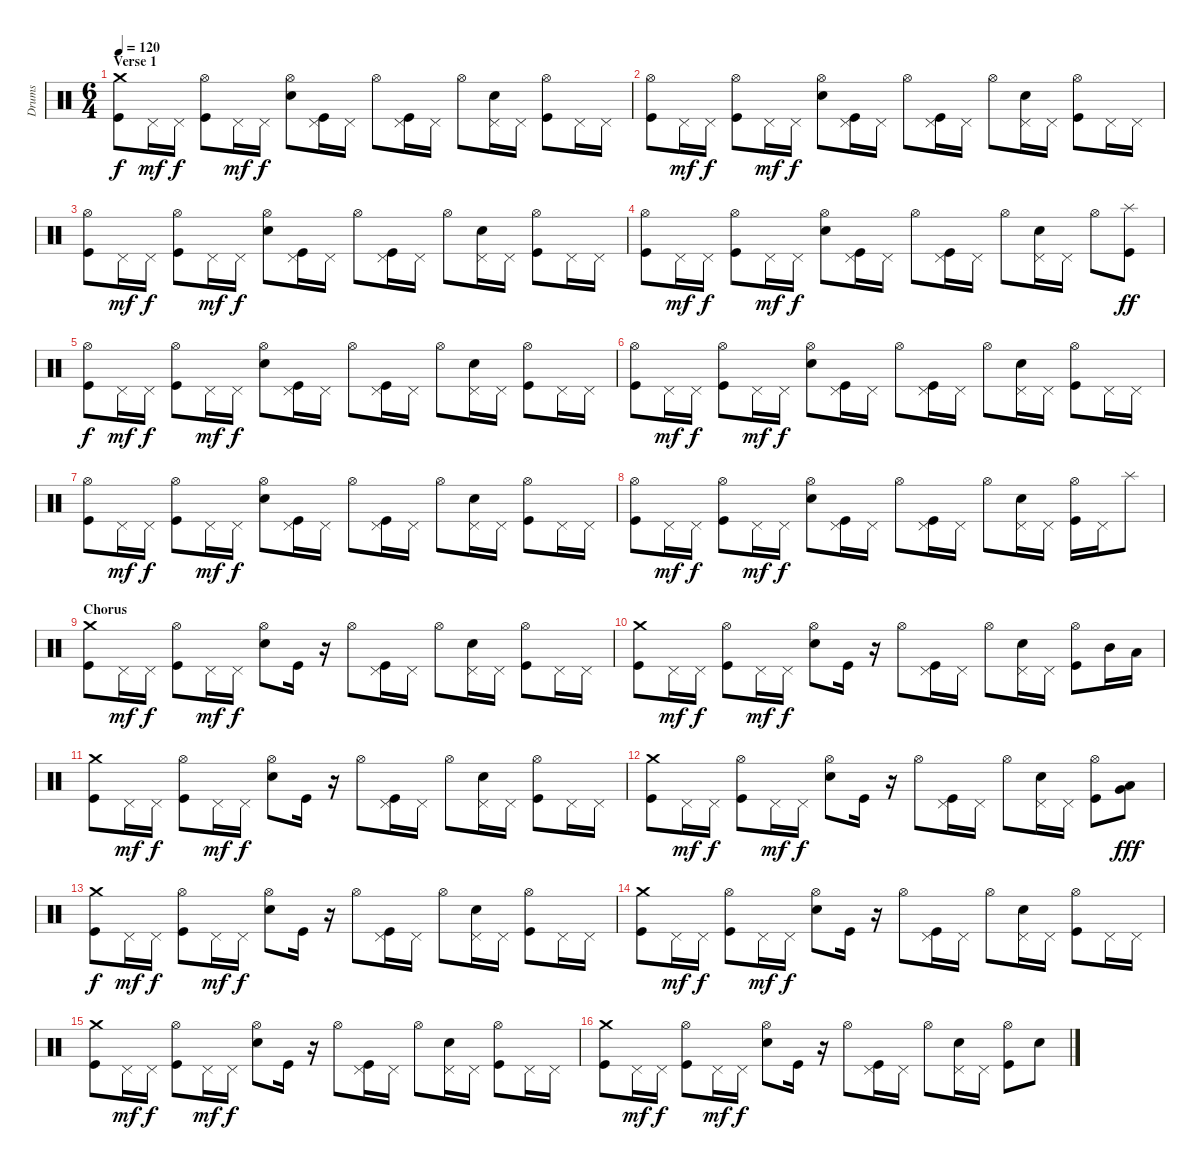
\track ("Drums" "Drums") {instrument percussion}
\staff {score}
\articulation defaults
\ts (6 4)
\section ("" "Verse 1")
\tempo 120
\clef neutral
\ks c
("Crash medium (hit)" "Kick (hit)").8{dy f} "Pedal Hi-Hat (hit)".16{dy mf} "Pedal Hi-Hat (hit)".16{dy f} ("Hi-Hat (open)" "Kick (hit)").8 "Pedal Hi-Hat (hit)".16{dy mf} "Pedal Hi-Hat (hit)".16{dy f} ("Hi-Hat (open)" "Electric Snare (hit)").8 ("Pedal Hi-Hat (hit)" "Kick (hit)").16 "Pedal Hi-Hat (hit)".16 "Hi-Hat (open)".8 ("Pedal Hi-Hat (hit)" "Kick (hit)").16 "Pedal Hi-Hat (hit)".16 "Hi-Hat (open)".8 ("Pedal Hi-Hat (hit)" "Electric Snare (hit)").16 "Pedal Hi-Hat (hit)".16 ("Hi-Hat (open)" "Kick (hit)").8 "Pedal Hi-Hat (hit)".16 "Pedal Hi-Hat (hit)".16 |
("Hi-Hat (open)" "Kick (hit)").8 "Pedal Hi-Hat (hit)".16{dy mf} "Pedal Hi-Hat (hit)".16{dy f} ("Hi-Hat (open)" "Kick (hit)").8 "Pedal Hi-Hat (hit)".16{dy mf} "Pedal Hi-Hat (hit)".16{dy f} ("Hi-Hat (open)" "Electric Snare (hit)").8 ("Pedal Hi-Hat (hit)" "Kick (hit)").16 "Pedal Hi-Hat (hit)".16 "Hi-Hat (open)".8 ("Pedal Hi-Hat (hit)" "Kick (hit)").16 "Pedal Hi-Hat (hit)".16 "Hi-Hat (open)".8 ("Pedal Hi-Hat (hit)" "Electric Snare (hit)").16 "Pedal Hi-Hat (hit)".16 ("Hi-Hat (open)" "Kick (hit)").8 "Pedal Hi-Hat (hit)".16 "Pedal Hi-Hat (hit)".16 |
("Hi-Hat (open)" "Kick (hit)").8 "Pedal Hi-Hat (hit)".16{dy mf} "Pedal Hi-Hat (hit)".16{dy f} ("Hi-Hat (open)" "Kick (hit)").8 "Pedal Hi-Hat (hit)".16{dy mf} "Pedal Hi-Hat (hit)".16{dy f} ("Hi-Hat (open)" "Electric Snare (hit)").8 ("Pedal Hi-Hat (hit)" "Kick (hit)").16 "Pedal Hi-Hat (hit)".16 "Hi-Hat (open)".8 ("Pedal Hi-Hat (hit)" "Kick (hit)").16 "Pedal Hi-Hat (hit)".16 "Hi-Hat (open)".8 ("Pedal Hi-Hat (hit)" "Electric Snare (hit)").16 "Pedal Hi-Hat (hit)".16 ("Hi-Hat (open)" "Kick (hit)").8 "Pedal Hi-Hat (hit)".16 "Pedal Hi-Hat (hit)".16 |
("Hi-Hat (open)" "Kick (hit)").8 "Pedal Hi-Hat (hit)".16{dy mf} "Pedal Hi-Hat (hit)".16{dy f} ("Hi-Hat (open)" "Kick (hit)").8 "Pedal Hi-Hat (hit)".16{dy mf} "Pedal Hi-Hat (hit)".16{dy f} ("Hi-Hat (open)" "Electric Snare (hit)").8 ("Pedal Hi-Hat (hit)" "Kick (hit)").16 "Pedal Hi-Hat (hit)".16 "Hi-Hat (open)".8 ("Pedal Hi-Hat (hit)" "Kick (hit)").16 "Pedal Hi-Hat (hit)".16 "Hi-Hat (open)".8 ("Pedal Hi-Hat (hit)" "Electric Snare (hit)").16 "Pedal Hi-Hat (hit)".16 "Hi-Hat (open)".8 ("Splash (hit)" "Kick (hit)").8{dy ff} |
("Hi-Hat (open)" "Kick (hit)").8{dy f} "Pedal Hi-Hat (hit)".16{dy mf} "Pedal Hi-Hat (hit)".16{dy f} ("Hi-Hat (open)" "Kick (hit)").8 "Pedal Hi-Hat (hit)".16{dy mf} "Pedal Hi-Hat (hit)".16{dy f} ("Hi-Hat (open)" "Electric Snare (hit)").8 ("Pedal Hi-Hat (hit)" "Kick (hit)").16 "Pedal Hi-Hat (hit)".16 "Hi-Hat (open)".8 ("Pedal Hi-Hat (hit)" "Kick (hit)").16 "Pedal Hi-Hat (hit)".16 "Hi-Hat (open)".8 ("Pedal Hi-Hat (hit)" "Electric Snare (hit)").16 "Pedal Hi-Hat (hit)".16 ("Hi-Hat (open)" "Kick (hit)").8 "Pedal Hi-Hat (hit)".16 "Pedal Hi-Hat (hit)".16 |
("Hi-Hat (open)" "Kick (hit)").8 "Pedal Hi-Hat (hit)".16{dy mf} "Pedal Hi-Hat (hit)".16{dy f} ("Hi-Hat (open)" "Kick (hit)").8 "Pedal Hi-Hat (hit)".16{dy mf} "Pedal Hi-Hat (hit)".16{dy f} ("Hi-Hat (open)" "Electric Snare (hit)").8 ("Pedal Hi-Hat (hit)" "Kick (hit)").16 "Pedal Hi-Hat (hit)".16 "Hi-Hat (open)".8 ("Pedal Hi-Hat (hit)" "Kick (hit)").16 "Pedal Hi-Hat (hit)".16 "Hi-Hat (open)".8 ("Pedal Hi-Hat (hit)" "Electric Snare (hit)").16 "Pedal Hi-Hat (hit)".16 ("Hi-Hat (open)" "Kick (hit)").8 "Pedal Hi-Hat (hit)".16 "Pedal Hi-Hat (hit)".16 |
("Hi-Hat (open)" "Kick (hit)").8 "Pedal Hi-Hat (hit)".16{dy mf} "Pedal Hi-Hat (hit)".16{dy f} ("Hi-Hat (open)" "Kick (hit)").8 "Pedal Hi-Hat (hit)".16{dy mf} "Pedal Hi-Hat (hit)".16{dy f} ("Hi-Hat (open)" "Electric Snare (hit)").8 ("Pedal Hi-Hat (hit)" "Kick (hit)").16 "Pedal Hi-Hat (hit)".16 "Hi-Hat (open)".8 ("Pedal Hi-Hat (hit)" "Kick (hit)").16 "Pedal Hi-Hat (hit)".16 "Hi-Hat (open)".8 ("Pedal Hi-Hat (hit)" "Electric Snare (hit)").16 "Pedal Hi-Hat (hit)".16 ("Hi-Hat (open)" "Kick (hit)").8 "Pedal Hi-Hat (hit)".16 "Pedal Hi-Hat (hit)".16 |
("Hi-Hat (open)" "Kick (hit)").8 "Pedal Hi-Hat (hit)".16{dy mf} "Pedal Hi-Hat (hit)".16{dy f} ("Hi-Hat (open)" "Kick (hit)").8 "Pedal Hi-Hat (hit)".16{dy mf} "Pedal Hi-Hat (hit)".16{dy f} ("Hi-Hat (open)" "Electric Snare (hit)").8 ("Pedal Hi-Hat (hit)" "Kick (hit)").16 "Pedal Hi-Hat (hit)".16 "Hi-Hat (open)".8 ("Pedal Hi-Hat (hit)" "Kick (hit)").16 "Pedal Hi-Hat (hit)".16 "Hi-Hat (open)".8 ("Pedal Hi-Hat (hit)" "Electric Snare (hit)").16 "Pedal Hi-Hat (hit)".16 ("Hi-Hat (open)" "Kick (hit)").16 "Pedal Hi-Hat (hit)".16 "Splash (hit)".8 |
\section ("" "Chorus")
("Crash medium (hit)" "Kick (hit)").8 "Pedal Hi-Hat (hit)".16{dy mf} "Pedal Hi-Hat (hit)".16{dy f} ("Hi-Hat (open)" "Kick (hit)").8 "Pedal Hi-Hat (hit)".16{dy mf} "Pedal Hi-Hat (hit)".16{dy f} ("Hi-Hat (open)" "Electric Snare (hit)").8 "Kick (hit)".16 r.16 "Hi-Hat (open)".8 ("Pedal Hi-Hat (hit)" "Kick (hit)").16 "Pedal Hi-Hat (hit)".16 "Hi-Hat (open)".8 ("Pedal Hi-Hat (hit)" "Electric Snare (hit)").16 "Pedal Hi-Hat (hit)".16 ("Hi-Hat (open)" "Kick (hit)").8 "Pedal Hi-Hat (hit)".16 "Pedal Hi-Hat (hit)".16 |
("Crash medium (hit)" "Kick (hit)").8 "Pedal Hi-Hat (hit)".16{dy mf} "Pedal Hi-Hat (hit)".16{dy f} ("Hi-Hat (open)" "Kick (hit)").8 "Pedal Hi-Hat (hit)".16{dy mf} "Pedal Hi-Hat (hit)".16{dy f} ("Hi-Hat (open)" "Electric Snare (hit)").8 "Kick (hit)".16 r.16 "Hi-Hat (open)".8 ("Pedal Hi-Hat (hit)" "Kick (hit)").16 "Pedal Hi-Hat (hit)".16 "Hi-Hat (open)".8 ("Pedal Hi-Hat (hit)" "Electric Snare (hit)").16 "Pedal Hi-Hat (hit)".16 ("Hi-Hat (open)" "Kick (hit)").8 "Mid Tom (hit)".16 "Low Tom (hit)".16 |
("Crash medium (hit)" "Kick (hit)").8 "Pedal Hi-Hat (hit)".16{dy mf} "Pedal Hi-Hat (hit)".16{dy f} ("Hi-Hat (open)" "Kick (hit)").8 "Pedal Hi-Hat (hit)".16{dy mf} "Pedal Hi-Hat (hit)".16{dy f} ("Hi-Hat (open)" "Electric Snare (hit)").8 "Kick (hit)".16 r.16 "Hi-Hat (open)".8 ("Pedal Hi-Hat (hit)" "Kick (hit)").16 "Pedal Hi-Hat (hit)".16 "Hi-Hat (open)".8 ("Pedal Hi-Hat (hit)" "Electric Snare (hit)").16 "Pedal Hi-Hat (hit)".16 ("Hi-Hat (open)" "Kick (hit)").8 "Pedal Hi-Hat (hit)".16 "Pedal Hi-Hat (hit)".16 |
("Crash medium (hit)" "Kick (hit)").8 "Pedal Hi-Hat (hit)".16{dy mf} "Pedal Hi-Hat (hit)".16{dy f} ("Hi-Hat (open)" "Kick (hit)").8 "Pedal Hi-Hat (hit)".16{dy mf} "Pedal Hi-Hat (hit)".16{dy f} ("Hi-Hat (open)" "Electric Snare (hit)").8 "Kick (hit)".16 r.16 "Hi-Hat (open)".8 ("Pedal Hi-Hat (hit)" "Kick (hit)").16 "Pedal Hi-Hat (hit)".16 "Hi-Hat (open)".8 ("Pedal Hi-Hat (hit)" "Electric Snare (hit)").16 "Pedal Hi-Hat (hit)".16 ("Hi-Hat (open)" "Kick (hit)").8 ("Low Floor Tom (hit)" "Very Low Tom (hit)").8{dy fff} |
("Crash medium (hit)" "Kick (hit)").8{dy f} "Pedal Hi-Hat (hit)".16{dy mf} "Pedal Hi-Hat (hit)".16{dy f} ("Hi-Hat (open)" "Kick (hit)").8 "Pedal Hi-Hat (hit)".16{dy mf} "Pedal Hi-Hat (hit)".16{dy f} ("Hi-Hat (open)" "Electric Snare (hit)").8 "Kick (hit)".16 r.16 "Hi-Hat (open)".8 ("Pedal Hi-Hat (hit)" "Kick (hit)").16 "Pedal Hi-Hat (hit)".16 "Hi-Hat (open)".8 ("Pedal Hi-Hat (hit)" "Electric Snare (hit)").16 "Pedal Hi-Hat (hit)".16 ("Hi-Hat (open)" "Kick (hit)").8 "Pedal Hi-Hat (hit)".16 "Pedal Hi-Hat (hit)".16 |
("Crash medium (hit)" "Kick (hit)").8 "Pedal Hi-Hat (hit)".16{dy mf} "Pedal Hi-Hat (hit)".16{dy f} ("Hi-Hat (open)" "Kick (hit)").8 "Pedal Hi-Hat (hit)".16{dy mf} "Pedal Hi-Hat (hit)".16{dy f} ("Hi-Hat (open)" "Electric Snare (hit)").8 "Kick (hit)".16 r.16 "Hi-Hat (open)".8 ("Pedal Hi-Hat (hit)" "Kick (hit)").16 "Pedal Hi-Hat (hit)".16 "Hi-Hat (open)".8 ("Pedal Hi-Hat (hit)" "Electric Snare (hit)").16 "Pedal Hi-Hat (hit)".16 ("Hi-Hat (open)" "Kick (hit)").8 "Pedal Hi-Hat (hit)".16 "Pedal Hi-Hat (hit)".16 |
("Crash medium (hit)" "Kick (hit)").8 "Pedal Hi-Hat (hit)".16{dy mf} "Pedal Hi-Hat (hit)".16{dy f} ("Hi-Hat (open)" "Kick (hit)").8 "Pedal Hi-Hat (hit)".16{dy mf} "Pedal Hi-Hat (hit)".16{dy f} ("Hi-Hat (open)" "Electric Snare (hit)").8 "Kick (hit)".16 r.16 "Hi-Hat (open)".8 ("Pedal Hi-Hat (hit)" "Kick (hit)").16 "Pedal Hi-Hat (hit)".16 "Hi-Hat (open)".8 ("Pedal Hi-Hat (hit)" "Electric Snare (hit)").16 "Pedal Hi-Hat (hit)".16 ("Hi-Hat (open)" "Kick (hit)").8 "Pedal Hi-Hat (hit)".16 "Pedal Hi-Hat (hit)".16 |
("Crash medium (hit)" "Kick (hit)").8 "Pedal Hi-Hat (hit)".16{dy mf} "Pedal Hi-Hat (hit)".16{dy f} ("Hi-Hat (open)" "Kick (hit)").8 "Pedal Hi-Hat (hit)".16{dy mf} "Pedal Hi-Hat (hit)".16{dy f} ("Hi-Hat (open)" "Electric Snare (hit)").8 "Kick (hit)".16 r.16 "Hi-Hat (open)".8 ("Pedal Hi-Hat (hit)" "Kick (hit)").16 "Pedal Hi-Hat (hit)".16 "Hi-Hat (open)".8 ("Pedal Hi-Hat (hit)" "Electric Snare (hit)").16 "Pedal Hi-Hat (hit)".16 ("Hi-Hat (open)" "Kick (hit)").8 "Electric Snare (hit)".8
